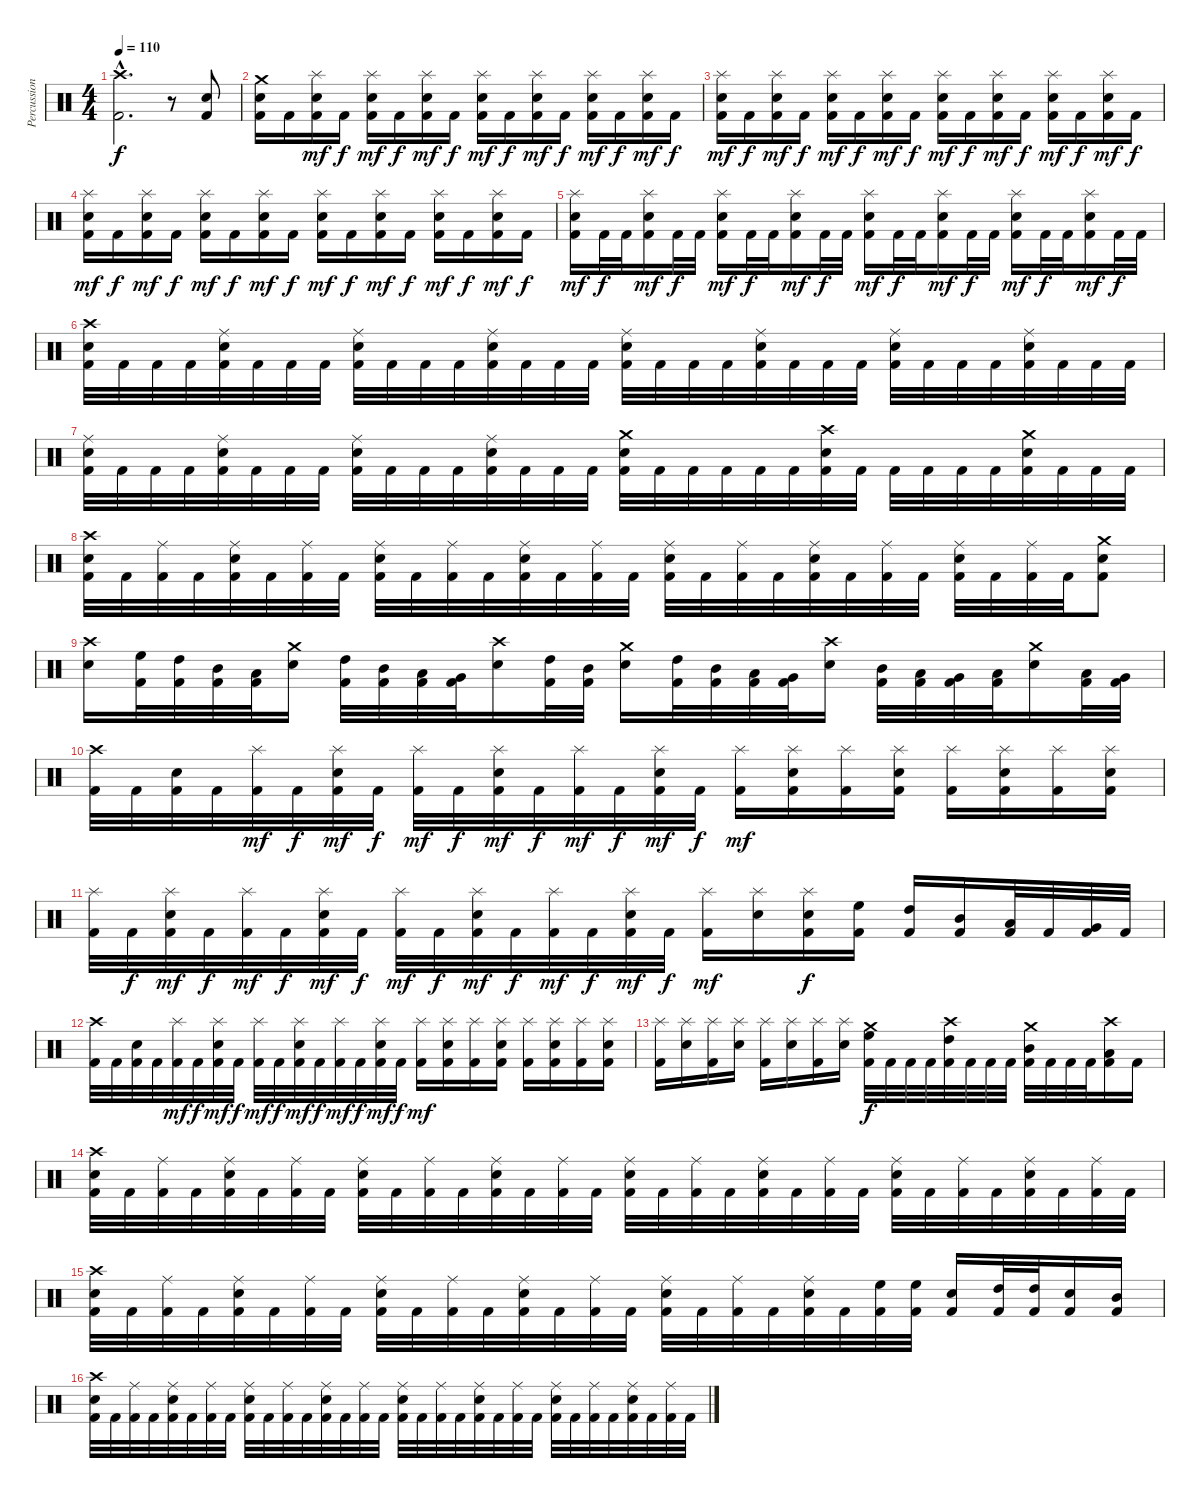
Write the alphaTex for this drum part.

\track ("Percussion" "Percussion") {instrument percussion}
\staff {score}
\articulation defaults
\ts (4 4)
\section ("" "")
\tempo 110
\clef neutral
\ks c
("Crash high (hit)"{hac} "Kick (hit) 2"{hac}).2{d dy f} r.8 ("Snare (hit) 2" "Kick (hit) 2").8 |
("Crash medium (hit)" "Snare (hit) 2" "Kick (hit) 2").16 "Kick (hit) 2".16 ("Splash (hit)" "Snare (hit) 2" "Kick (hit) 2").16{dy mf} "Kick (hit) 2".16{dy f} ("Splash (hit)" "Snare (hit) 2" "Kick (hit) 2").16{dy mf} "Kick (hit) 2".16{dy f} ("Splash (hit)" "Snare (hit) 2" "Kick (hit) 2").16{dy mf} "Kick (hit) 2".16{dy f} ("Splash (hit)" "Snare (hit) 2" "Kick (hit) 2").16{dy mf} "Kick (hit) 2".16{dy f} ("Splash (hit)" "Snare (hit) 2" "Kick (hit) 2").16{dy mf} "Kick (hit) 2".16{dy f} ("Splash (hit)" "Snare (hit) 2" "Kick (hit) 2").16{dy mf} "Kick (hit) 2".16{dy f} ("Splash (hit)" "Snare (hit) 2" "Kick (hit) 2").16{dy mf} "Kick (hit) 2".16{dy f} |
("Splash (hit)" "Snare (hit) 2" "Kick (hit) 2").16{dy mf} "Kick (hit) 2".16{dy f} ("Splash (hit)" "Snare (hit) 2" "Kick (hit) 2").16{dy mf} "Kick (hit) 2".16{dy f} ("Splash (hit)" "Snare (hit) 2" "Kick (hit) 2").16{dy mf} "Kick (hit) 2".16{dy f} ("Splash (hit)" "Snare (hit) 2" "Kick (hit) 2").16{dy mf} "Kick (hit) 2".16{dy f} ("Splash (hit)" "Snare (hit) 2" "Kick (hit) 2").16{dy mf} "Kick (hit) 2".16{dy f} ("Splash (hit)" "Snare (hit) 2" "Kick (hit) 2").16{dy mf} "Kick (hit) 2".16{dy f} ("Splash (hit)" "Snare (hit) 2" "Kick (hit) 2").16{dy mf} "Kick (hit) 2".16{dy f} ("Splash (hit)" "Snare (hit) 2" "Kick (hit) 2").16{dy mf} "Kick (hit) 2".16{dy f} |
("Splash (hit)" "Snare (hit) 2" "Kick (hit) 2").16{dy mf} "Kick (hit) 2".16{dy f} ("Splash (hit)" "Snare (hit) 2" "Kick (hit) 2").16{dy mf} "Kick (hit) 2".16{dy f} ("Splash (hit)" "Snare (hit) 2" "Kick (hit) 2").16{dy mf} "Kick (hit) 2".16{dy f} ("Splash (hit)" "Snare (hit) 2" "Kick (hit) 2").16{dy mf} "Kick (hit) 2".16{dy f} ("Splash (hit)" "Snare (hit) 2" "Kick (hit) 2").16{dy mf} "Kick (hit) 2".16{dy f} ("Splash (hit)" "Snare (hit) 2" "Kick (hit) 2").16{dy mf} "Kick (hit) 2".16{dy f} ("Splash (hit)" "Snare (hit) 2" "Kick (hit) 2").16{dy mf} "Kick (hit) 2".16{dy f} ("Splash (hit)" "Snare (hit) 2" "Kick (hit) 2").16{dy mf} "Kick (hit) 2".16{dy f} |
("Splash (hit)" "Snare (hit) 2" "Kick (hit) 2").16{dy mf} "Kick (hit) 2".32{dy f} "Kick (hit) 2".32 ("Splash (hit)" "Snare (hit) 2" "Kick (hit) 2").16{dy mf} "Kick (hit) 2".32{dy f} "Kick (hit) 2".32 ("Splash (hit)" "Snare (hit) 2" "Kick (hit) 2").16{dy mf} "Kick (hit) 2".32{dy f} "Kick (hit) 2".32 ("Splash (hit)" "Snare (hit) 2" "Kick (hit) 2").16{dy mf} "Kick (hit) 2".32{dy f} "Kick (hit) 2".32 ("Splash (hit)" "Snare (hit) 2" "Kick (hit) 2").16{dy mf} "Kick (hit) 2".32{dy f} "Kick (hit) 2".32 ("Splash (hit)" "Snare (hit) 2" "Kick (hit) 2").16{dy mf} "Kick (hit) 2".32{dy f} "Kick (hit) 2".32 ("Splash (hit)" "Snare (hit) 2" "Kick (hit) 2").16{dy mf} "Kick (hit) 2".32{dy f} "Kick (hit) 2".32 ("Splash (hit)" "Snare (hit) 2" "Kick (hit) 2").16{dy mf} "Kick (hit) 2".32{dy f} "Kick (hit) 2".32 |
("Crash high (hit)" "Snare (hit) 2" "Kick (hit) 2").32 "Kick (hit) 2".32 "Kick (hit) 2".32 "Kick (hit) 2".32 ("Ride (middle)" "Snare (hit) 2" "Kick (hit) 2").32 "Kick (hit) 2".32 "Kick (hit) 2".32 "Kick (hit) 2".32 ("Ride (middle)" "Snare (hit) 2" "Kick (hit) 2").32 "Kick (hit) 2".32 "Kick (hit) 2".32 "Kick (hit) 2".32 ("Ride (middle)" "Snare (hit) 2" "Kick (hit) 2").32 "Kick (hit) 2".32 "Kick (hit) 2".32 "Kick (hit) 2".32 ("Ride (middle)" "Snare (hit) 2" "Kick (hit) 2").32 "Kick (hit) 2".32 "Kick (hit) 2".32 "Kick (hit) 2".32 ("Ride (middle)" "Snare (hit) 2" "Kick (hit) 2").32 "Kick (hit) 2".32 "Kick (hit) 2".32 "Kick (hit) 2".32 ("Ride (middle)" "Snare (hit) 2" "Kick (hit) 2").32 "Kick (hit) 2".32 "Kick (hit) 2".32 "Kick (hit) 2".32 ("Ride (middle)" "Snare (hit) 2" "Kick (hit) 2").32 "Kick (hit) 2".32 "Kick (hit) 2".32 "Kick (hit) 2".32 |
("Ride (middle)" "Snare (hit) 2" "Kick (hit) 2").32 "Kick (hit) 2".32 "Kick (hit) 2".32 "Kick (hit) 2".32 ("Ride (middle)" "Snare (hit) 2" "Kick (hit) 2").32 "Kick (hit) 2".32 "Kick (hit) 2".32 "Kick (hit) 2".32 ("Ride (middle)" "Snare (hit) 2" "Kick (hit) 2").32 "Kick (hit) 2".32 "Kick (hit) 2".32 "Kick (hit) 2".32 ("Ride (middle)" "Snare (hit) 2" "Kick (hit) 2").32 "Kick (hit) 2".32 "Kick (hit) 2".32 "Kick (hit) 2".32 ("Crash medium (hit)" "Snare (hit) 2" "Kick (hit) 2").32 "Kick (hit) 2".32 "Kick (hit) 2".32 "Kick (hit) 2".32 "Kick (hit) 2".32 "Kick (hit) 2".32 ("Crash high (hit)" "Snare (hit) 2" "Kick (hit) 2").32 "Kick (hit) 2".32 "Kick (hit) 2".32 "Kick (hit) 2".32 "Kick (hit) 2".32 "Kick (hit) 2".32 ("Crash medium (hit)" "Snare (hit) 2" "Kick (hit) 2").32 "Kick (hit) 2".32 "Kick (hit) 2".32 "Kick (hit) 2".32 |
("Crash high (hit)" "Snare (hit) 2" "Kick (hit) 2").32 "Kick (hit) 2".32 ("Ride (middle)" "Kick (hit) 2").32 "Kick (hit) 2".32 ("Ride (middle)" "Snare (hit) 2" "Kick (hit) 2").32 "Kick (hit) 2".32 ("Ride (middle)" "Kick (hit) 2").32 "Kick (hit) 2".32 ("Ride (middle)" "Snare (hit) 2" "Kick (hit) 2").32 "Kick (hit) 2".32 ("Ride (middle)" "Kick (hit) 2").32 "Kick (hit) 2".32 ("Ride (middle)" "Snare (hit) 2" "Kick (hit) 2").32 "Kick (hit) 2".32 ("Ride (middle)" "Kick (hit) 2").32 "Kick (hit) 2".32 ("Ride (middle)" "Snare (hit) 2" "Kick (hit) 2").32 "Kick (hit) 2".32 ("Ride (middle)" "Kick (hit) 2").32 "Kick (hit) 2".32 ("Ride (middle)" "Snare (hit) 2" "Kick (hit) 2").32 "Kick (hit) 2".32 ("Ride (middle)" "Kick (hit) 2").32 "Kick (hit) 2".32 ("Ride (middle)" "Snare (hit) 2" "Kick (hit) 2").32 "Kick (hit) 2".32 ("Ride (middle)" "Kick (hit) 2").32 "Kick (hit) 2".32 ("Crash medium (hit)" "Snare (hit) 2" "Kick (hit) 2").8 |
("Crash high (hit)" "Snare (hit) 2").16 ("High Floor Tom (hit)" "Kick (hit) 2").32 ("High Tom (hit)" "Kick (hit) 2").32 ("Mid Tom (hit)" "Kick (hit) 2").32 ("Low Tom (hit)" "Kick (hit) 2").32 ("Crash medium (hit)" "Snare (hit) 2").16 ("High Tom (hit)" "Kick (hit) 2").32 ("Mid Tom (hit)" "Kick (hit) 2").32 ("Low Tom (hit)" "Kick (hit) 2").32 ("Very Low Tom (hit)" "Kick (hit) 2").32 ("Crash high (hit)" "Snare (hit) 2").16 ("High Tom (hit)" "Kick (hit) 2").32 ("Mid Tom (hit)" "Kick (hit) 2").32 ("Crash medium (hit)" "Snare (hit) 2").16 ("High Tom (hit)" "Kick (hit) 2").32 ("Mid Tom (hit)" "Kick (hit) 2").32 ("Low Tom (hit)" "Kick (hit) 2").32 ("Very Low Tom (hit)" "Kick (hit) 2").32 ("Crash high (hit)" "Snare (hit) 2").16 ("Mid Tom (hit)" "Kick (hit) 2").32 ("Low Tom (hit)" "Kick (hit) 2").32 ("Very Low Tom (hit)" "Kick (hit) 2").32 ("Low Floor Tom (hit)" "Kick (hit) 2").32 ("Crash medium (hit)" "Snare (hit) 2").16 ("Low Tom (hit)" "Kick (hit) 2").32 ("Very Low Tom (hit)" "Kick (hit) 2").32 |
\section ("" "")
("Crash high (hit)" "Kick (hit) 2").32 "Kick (hit) 2".32 ("Snare (hit) 2" "Kick (hit) 2").32 "Kick (hit) 2".32 ("Splash (hit)" "Kick (hit) 2").32{dy mf} "Kick (hit) 2".32{dy f} ("Splash (hit)" "Snare (hit) 2" "Kick (hit) 2").32{dy mf} "Kick (hit) 2".32{dy f} ("Splash (hit)" "Kick (hit) 2").32{dy mf} "Kick (hit) 2".32{dy f} ("Splash (hit)" "Snare (hit) 2" "Kick (hit) 2").32{dy mf} "Kick (hit) 2".32{dy f} ("Splash (hit)" "Kick (hit) 2").32{dy mf} "Kick (hit) 2".32{dy f} ("Splash (hit)" "Snare (hit) 2" "Kick (hit) 2").32{dy mf} "Kick (hit) 2".32{dy f} ("Splash (hit)" "Kick (hit) 2").16{dy mf} ("Splash (hit)" "Snare (hit) 2" "Kick (hit) 2").16 ("Splash (hit)" "Kick (hit) 2").16 ("Splash (hit)" "Snare (hit) 2" "Kick (hit) 2").16 ("Splash (hit)" "Kick (hit) 2").16 ("Splash (hit)" "Snare (hit) 2" "Kick (hit) 2").16 ("Splash (hit)" "Kick (hit) 2").16 ("Splash (hit)" "Snare (hit) 2" "Kick (hit) 2").16 |
("Splash (hit)" "Kick (hit) 2").32 "Kick (hit) 2".32{dy f} ("Splash (hit)" "Snare (hit) 2" "Kick (hit) 2").32{dy mf} "Kick (hit) 2".32{dy f} ("Splash (hit)" "Kick (hit) 2").32{dy mf} "Kick (hit) 2".32{dy f} ("Splash (hit)" "Snare (hit) 2" "Kick (hit) 2").32{dy mf} "Kick (hit) 2".32{dy f} ("Splash (hit)" "Kick (hit) 2").32{dy mf} "Kick (hit) 2".32{dy f} ("Splash (hit)" "Snare (hit) 2" "Kick (hit) 2").32{dy mf} "Kick (hit) 2".32{dy f} ("Splash (hit)" "Kick (hit) 2").32{dy mf} "Kick (hit) 2".32{dy f} ("Splash (hit)" "Snare (hit) 2" "Kick (hit) 2").32{dy mf} "Kick (hit) 2".32{dy f} ("Splash (hit)" "Kick (hit) 2").16{dy mf} ("Splash (hit)" "Snare (hit) 2").16 ("Splash (hit)" "Snare (hit) 2" "Kick (hit) 2").16{dy f} ("High Floor Tom (hit)" "Kick (hit) 2").16 ("High Tom (hit)" "Kick (hit) 2").16 ("Mid Tom (hit)" "Kick (hit) 2").16 ("Low Tom (hit)" "Kick (hit) 2").32 "Kick (hit) 2".32 ("Very Low Tom (hit)" "Kick (hit) 2").32 "Kick (hit) 2".32 |
("Crash high (hit)" "Kick (hit) 2").32 "Kick (hit) 2".32 ("Snare (hit) 2" "Kick (hit) 2").32 "Kick (hit) 2".32 ("Splash (hit)" "Kick (hit) 2").32{dy mf} "Kick (hit) 2".32{dy f} ("Splash (hit)" "Snare (hit) 2" "Kick (hit) 2").32{dy mf} "Kick (hit) 2".32{dy f} ("Splash (hit)" "Kick (hit) 2").32{dy mf} "Kick (hit) 2".32{dy f} ("Splash (hit)" "Snare (hit) 2" "Kick (hit) 2").32{dy mf} "Kick (hit) 2".32{dy f} ("Splash (hit)" "Kick (hit) 2").32{dy mf} "Kick (hit) 2".32{dy f} ("Splash (hit)" "Snare (hit) 2" "Kick (hit) 2").32{dy mf} "Kick (hit) 2".32{dy f} ("Splash (hit)" "Kick (hit) 2").16{dy mf} ("Splash (hit)" "Snare (hit) 2" "Kick (hit) 2").16 ("Splash (hit)" "Kick (hit) 2").16 ("Splash (hit)" "Snare (hit) 2" "Kick (hit) 2").16 ("Splash (hit)" "Kick (hit) 2").16 ("Splash (hit)" "Snare (hit) 2" "Kick (hit) 2").16 ("Splash (hit)" "Kick (hit) 2").16 ("Splash (hit)" "Snare (hit) 2" "Kick (hit) 2").16 |
("Splash (hit)" "Kick (hit) 2").16 ("Splash (hit)" "Snare (hit) 2").16 ("Splash (hit)" "Kick (hit) 2").16 ("Splash (hit)" "Snare (hit) 2").16 ("Splash (hit)" "Kick (hit) 2").16 ("Splash (hit)" "Snare (hit) 2").16 ("Splash (hit)" "Kick (hit) 2").16 ("Splash (hit)" "Snare (hit) 2").16 ("Crash medium (hit)" "High Floor Tom (hit)" "Kick (hit) 2").32{dy f} "Kick (hit) 2".32 "Kick (hit) 2".32 "Kick (hit) 2".32 ("Crash high (hit)" "High Tom (hit)" "Kick (hit) 2").32 "Kick (hit) 2".32 "Kick (hit) 2".32 "Kick (hit) 2".32 ("Crash medium (hit)" "Mid Tom (hit)" "Kick (hit) 2").32 "Kick (hit) 2".32 "Kick (hit) 2".32 "Kick (hit) 2".32 ("Crash high (hit)" "Low Tom (hit)" "Kick (hit) 2").16 "Kick (hit) 2".16 |
("Crash high (hit)" "Snare (hit) 2" "Kick (hit) 2").32 "Kick (hit) 2".32 ("Ride (middle)" "Kick (hit) 2").32 "Kick (hit) 2".32 ("Ride (middle)" "Snare (hit) 2" "Kick (hit) 2").32 "Kick (hit) 2".32 ("Ride (middle)" "Kick (hit) 2").32 "Kick (hit) 2".32 ("Ride (middle)" "Snare (hit) 2" "Kick (hit) 2").32 "Kick (hit) 2".32 ("Ride (middle)" "Kick (hit) 2").32 "Kick (hit) 2".32 ("Ride (middle)" "Snare (hit) 2" "Kick (hit) 2").32 "Kick (hit) 2".32 ("Ride (middle)" "Kick (hit) 2").32 "Kick (hit) 2".32 ("Ride (middle)" "Snare (hit) 2" "Kick (hit) 2").32 "Kick (hit) 2".32 ("Ride (middle)" "Kick (hit) 2").32 "Kick (hit) 2".32 ("Ride (middle)" "Snare (hit) 2" "Kick (hit) 2").32 "Kick (hit) 2".32 ("Ride (middle)" "Kick (hit) 2").32 "Kick (hit) 2".32 ("Ride (middle)" "Snare (hit) 2" "Kick (hit) 2").32 "Kick (hit) 2".32 ("Ride (middle)" "Kick (hit) 2").32 "Kick (hit) 2".32 ("Ride (middle)" "Snare (hit) 2" "Kick (hit) 2").32 "Kick (hit) 2".32 ("Ride (middle)" "Kick (hit) 2").32 "Kick (hit) 2".32 |
("Crash high (hit)" "Snare (hit) 2" "Kick (hit) 2").32 "Kick (hit) 2".32 ("Ride (middle)" "Kick (hit) 2").32 "Kick (hit) 2".32 ("Ride (middle)" "Snare (hit) 2" "Kick (hit) 2").32 "Kick (hit) 2".32 ("Ride (middle)" "Kick (hit) 2").32 "Kick (hit) 2".32 ("Ride (middle)" "Snare (hit) 2" "Kick (hit) 2").32 "Kick (hit) 2".32 ("Ride (middle)" "Kick (hit) 2").32 "Kick (hit) 2".32 ("Ride (middle)" "Snare (hit) 2" "Kick (hit) 2").32 "Kick (hit) 2".32 ("Ride (middle)" "Kick (hit) 2").32 "Kick (hit) 2".32 ("Ride (middle)" "Snare (hit) 2" "Kick (hit) 2").32 "Kick (hit) 2".32 ("Ride (middle)" "Kick (hit) 2").32 "Kick (hit) 2".32 ("Ride (middle)" "Snare (hit) 2" "Kick (hit) 2").32 "Kick (hit) 2".32 ("High Floor Tom (hit)" "Kick (hit) 2").32 ("High Floor Tom (hit)" "Kick (hit) 2").32 ("Snare (hit) 2" "Kick (hit) 2").16 ("High Tom (hit)" "Kick (hit) 2").32 ("High Tom (hit)" "Kick (hit) 2").32 ("Snare (hit) 2" "Kick (hit) 2").16 ("Mid Tom (hit)" "Kick (hit) 2").16 |
("Crash high (hit)" "Snare (hit) 2" "Kick (hit) 2").32 "Kick (hit) 2".32 ("Ride (middle)" "Kick (hit) 2").32 "Kick (hit) 2".32 ("Ride (middle)" "Snare (hit) 2" "Kick (hit) 2").32 "Kick (hit) 2".32 ("Ride (middle)" "Kick (hit) 2").32 "Kick (hit) 2".32 ("Ride (middle)" "Snare (hit) 2" "Kick (hit) 2").32 "Kick (hit) 2".32 ("Ride (middle)" "Kick (hit) 2").32 "Kick (hit) 2".32 ("Ride (middle)" "Snare (hit) 2" "Kick (hit) 2").32 "Kick (hit) 2".32 ("Ride (middle)" "Kick (hit) 2").32 "Kick (hit) 2".32 ("Ride (middle)" "Snare (hit) 2" "Kick (hit) 2").32 "Kick (hit) 2".32 ("Ride (middle)" "Kick (hit) 2").32 "Kick (hit) 2".32 ("Ride (middle)" "Snare (hit) 2" "Kick (hit) 2").32 "Kick (hit) 2".32 ("Ride (middle)" "Kick (hit) 2").32 "Kick (hit) 2".32 ("Ride (middle)" "Snare (hit) 2" "Kick (hit) 2").32 "Kick (hit) 2".32 ("Ride (middle)" "Kick (hit) 2").32 "Kick (hit) 2".32 ("Ride (middle)" "Snare (hit) 2" "Kick (hit) 2").32 "Kick (hit) 2".32 ("Ride (middle)" "Kick (hit) 2").32 "Kick (hit) 2".32
